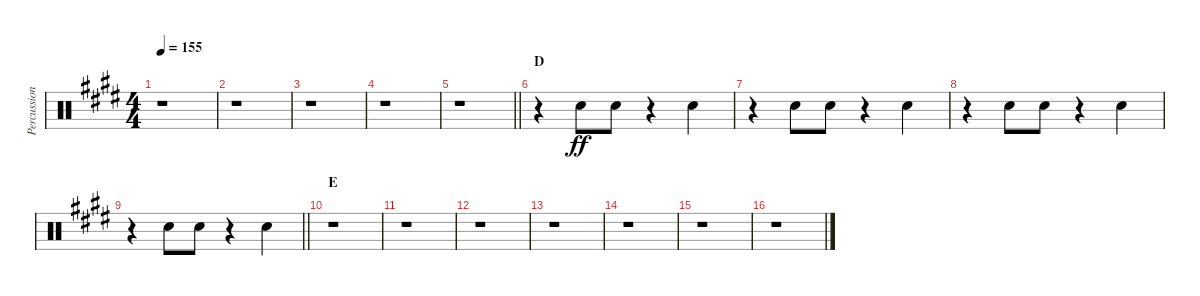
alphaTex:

\track ("Percussion" "Percussion") {instrument percussion}
\staff {score}
\articulation defaults
\ts (4 4)
\tempo 155
\clef neutral
\ks e
r.1{dy ff} |
r.1 |
r.1 |
r.1 |
\barLineRight lightlight
r.1 |
\section ("" "D")
r.4 "Hand Clap (hit)".8 "Hand Clap (hit)".8 r.4 "Hand Clap (hit)".4 |
r.4 "Hand Clap (hit)".8 "Hand Clap (hit)".8 r.4 "Hand Clap (hit)".4 |
r.4 "Hand Clap (hit)".8 "Hand Clap (hit)".8 r.4 "Hand Clap (hit)".4 |
\barLineRight lightlight
r.4 "Hand Clap (hit)".8 "Hand Clap (hit)".8 r.4 "Hand Clap (hit)".4 |
\section ("" "E")
r.1 |
r.1 |
r.1 |
r.1 |
r.1 |
r.1 |
r.1
